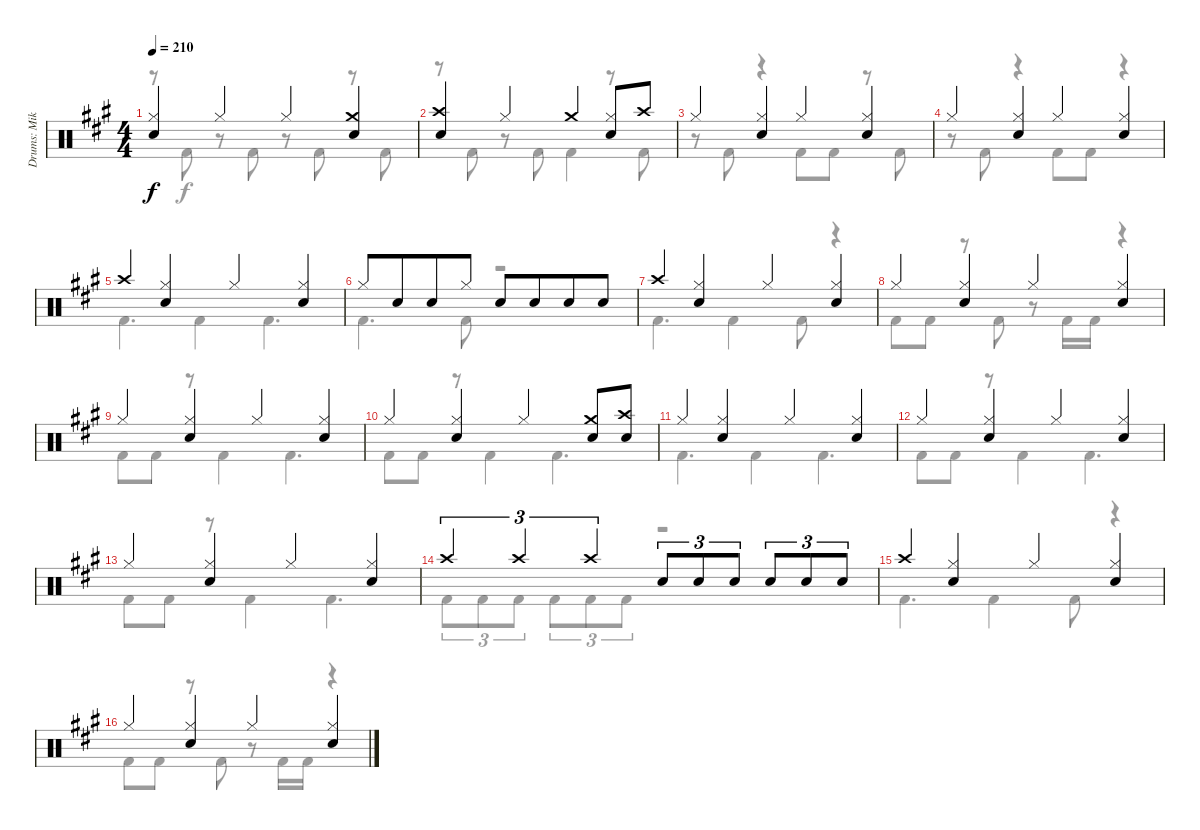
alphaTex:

\track ("Drums: Mikkey" "Drums: Mik") {instrument percussion}
\staff {score}
\articulation defaults
\voice
\ts (4 4)
\tempo 210
\clef neutral
\ks a
("Hi-Hat (closed)" "Snare (hit) 2").4{dy f} "Hi-Hat (closed)".4 "Hi-Hat (closed)".4 ("Crash medium (hit)" "Snare (hit) 2").4 |
("Crash high (hit)" "Snare (hit) 2").4 "Hi-Hat (closed)".4 "Crash medium (hit)".4 ("Hi-Hat (closed)" "Snare (hit) 2").8 "Crash high (hit)".8 |
"Hi-Hat (closed)".4 ("Hi-Hat (closed)" "Snare (hit) 2").4 "Hi-Hat (closed)".4 ("Hi-Hat (closed)" "Snare (hit) 2").4 |
"Hi-Hat (closed)".4 ("Hi-Hat (closed)" "Snare (hit) 2").4 "Hi-Hat (closed)".4 ("Hi-Hat (closed)" "Snare (hit) 2").4 |
"Crash high (hit)".4 ("Hi-Hat (closed)" "Snare (hit) 2").4 "Hi-Hat (closed)".4 ("Hi-Hat (closed)" "Snare (hit) 2").4 |
"Hi-Hat (closed)".8 "Snare (hit) 2".8{beam merge} "Snare (hit) 2".8 "Hi-Hat (closed)".8 "Snare (hit) 2".8 "Snare (hit) 2".8{beam merge} "Snare (hit) 2".8 "Snare (hit) 2".8 |
"Crash high (hit)".4 ("Hi-Hat (closed)" "Snare (hit) 2").4 "Hi-Hat (closed)".4 ("Hi-Hat (closed)" "Snare (hit) 2").4 |
"Hi-Hat (closed)".4 ("Hi-Hat (closed)" "Snare (hit) 2").4 "Hi-Hat (closed)".4 ("Hi-Hat (closed)" "Snare (hit) 2").4 |
"Hi-Hat (closed)".4 ("Hi-Hat (closed)" "Snare (hit) 2").4 "Hi-Hat (closed)".4 ("Hi-Hat (closed)" "Snare (hit) 2").4 |
"Hi-Hat (closed)".4 ("Hi-Hat (closed)" "Snare (hit) 2").4 "Hi-Hat (closed)".4 ("Crash medium (hit)" "Snare (hit) 2").8 ("Crash high (hit)" "Snare (hit) 2").8 |
"Hi-Hat (closed)".4 ("Hi-Hat (closed)" "Snare (hit) 2").4 "Hi-Hat (closed)".4 ("Hi-Hat (closed)" "Snare (hit) 2").4 |
"Hi-Hat (closed)".4 ("Hi-Hat (closed)" "Snare (hit) 2").4 "Hi-Hat (closed)".4 ("Hi-Hat (closed)" "Snare (hit) 2").4 |
"Hi-Hat (closed)".4 ("Hi-Hat (closed)" "Snare (hit) 2").4 "Hi-Hat (closed)".4 ("Hi-Hat (closed)" "Snare (hit) 2").4 |
"Crash high (hit)".4{tu (3 2)} "Crash high (hit)".4{tu (3 2)} "Crash high (hit)".4{tu (3 2)} "Snare (hit) 2".8{tu (3 2)} "Snare (hit) 2".8{tu (3 2)} "Snare (hit) 2".8{tu (3 2)} "Snare (hit) 2".8{tu (3 2)} "Snare (hit) 2".8{tu (3 2)} "Snare (hit) 2".8{tu (3 2)} |
"Crash high (hit)".4 ("Hi-Hat (closed)" "Snare (hit) 2").4 "Hi-Hat (closed)".4 ("Hi-Hat (closed)" "Snare (hit) 2").4 |
"Hi-Hat (closed)".4 ("Hi-Hat (closed)" "Snare (hit) 2").4 "Hi-Hat (closed)".4 ("Hi-Hat (closed)" "Snare (hit) 2").4
\voice
\clef neutral
\ottava regular
\simile none
\ks a
r.8{dy f} "Kick (hit) 2".8 r.8 "Kick (hit) 2".8 r.8 "Kick (hit) 2".8 r.8 "Kick (hit) 2".8 |
r.8 "Kick (hit) 2".8 r.8 "Kick (hit) 2".8 "Kick (hit) 2".4 r.8 "Kick (hit) 2".8 |
r.8 "Kick (hit) 2".8 r.4 "Kick (hit) 2".8 "Kick (hit) 2".8 r.8 "Kick (hit) 2".8 |
r.8 "Kick (hit) 2".8 r.4 "Kick (hit) 2".8 "Kick (hit) 2".8 r.4 |
"Kick (hit) 2".4{d} "Kick (hit) 2".4 "Kick (hit) 2".4{d} |
"Kick (hit) 2".4{d} "Kick (hit) 2".8 r.2 |
"Kick (hit) 2".4{d} "Kick (hit) 2".4 "Kick (hit) 2".8 r.4 |
"Kick (hit) 2".8 "Kick (hit) 2".8 r.8 "Kick (hit) 2".8 r.8 "Kick (hit) 2".16 "Kick (hit) 2".16 r.4 |
"Kick (hit) 2".8 "Kick (hit) 2".8 r.8 "Kick (hit) 2".4 "Kick (hit) 2".4{d} |
"Kick (hit) 2".8 "Kick (hit) 2".8 r.8 "Kick (hit) 2".4 "Kick (hit) 2".4{d} |
"Kick (hit) 2".4{d} "Kick (hit) 2".4 "Kick (hit) 2".4{d} |
"Kick (hit) 2".8 "Kick (hit) 2".8 r.8 "Kick (hit) 2".4 "Kick (hit) 2".4{d} |
"Kick (hit) 2".8 "Kick (hit) 2".8 r.8 "Kick (hit) 2".4 "Kick (hit) 2".4{d} |
"Kick (hit) 2".8{tu (3 2)} "Kick (hit) 2".8{tu (3 2)} "Kick (hit) 2".8{tu (3 2)} "Kick (hit) 2".8{tu (3 2)} "Kick (hit) 2".8{tu (3 2)} "Kick (hit) 2".8{tu (3 2)} r.2 |
"Kick (hit) 2".4{d} "Kick (hit) 2".4 "Kick (hit) 2".8 r.4 |
"Kick (hit) 2".8 "Kick (hit) 2".8 r.8 "Kick (hit) 2".8 r.8 "Kick (hit) 2".16 "Kick (hit) 2".16 r.4
